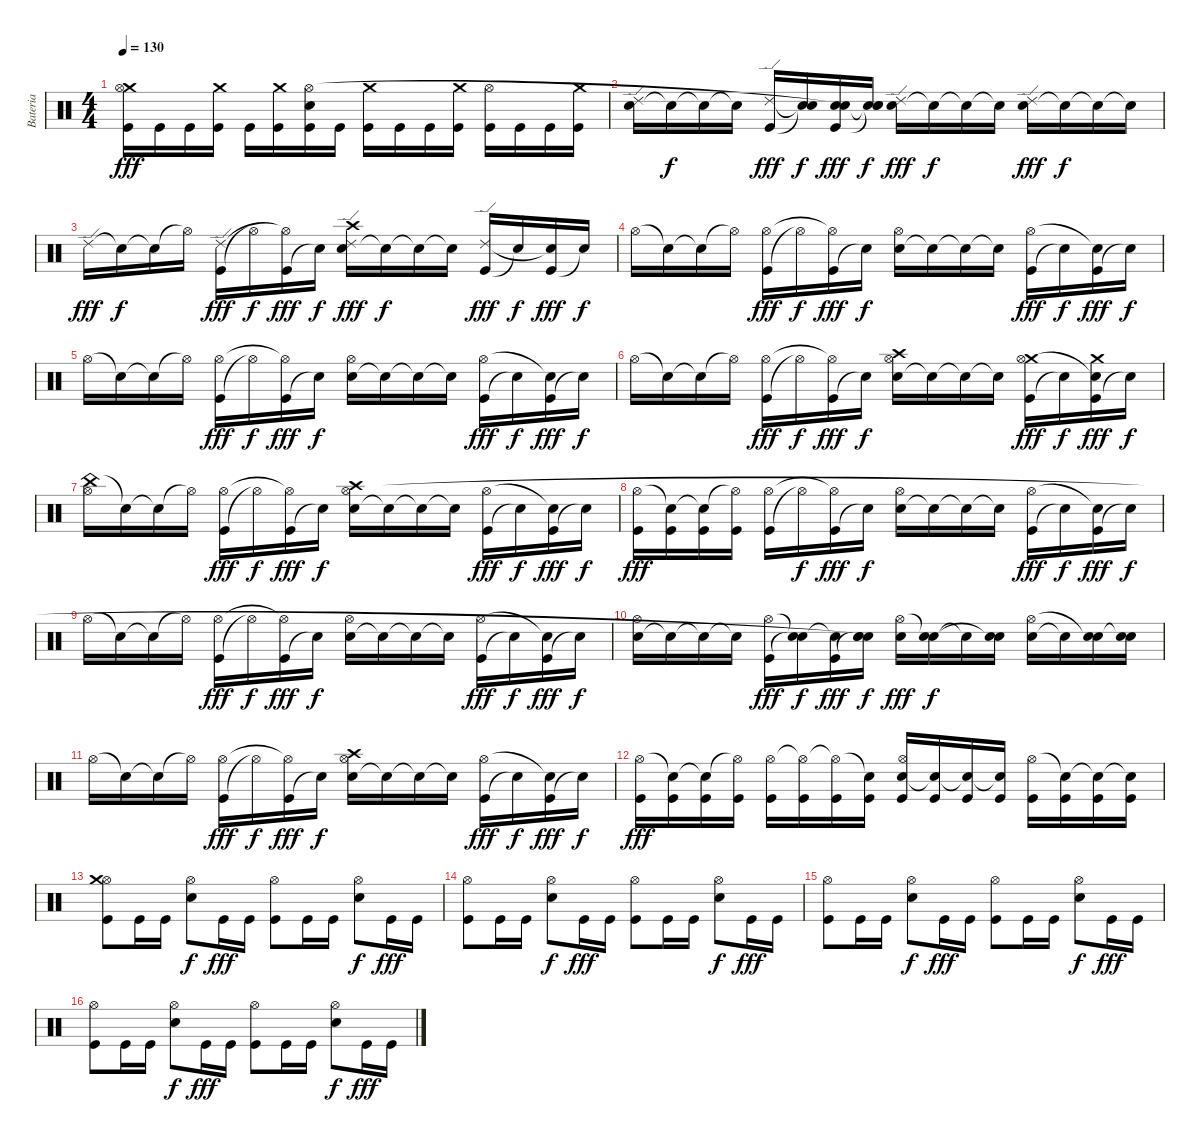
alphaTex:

\track ("Bateria" "Bateria") {instrument percussion}
\staff {score}
\articulation defaults
\ts (4 4)
\tempo 130
\clef neutral
\ks c
("Kick (hit)" "Crash medium (hit)" "Hi-Hat (open)").16{dy fff} "Kick (hit)".16 "Kick (hit)".16 ("Kick (hit)" "Crash medium (hit)").16 "Kick (hit)".16 ("Kick (hit)" "Crash medium (hit)").16 ("Kick (hit)" "Electric Snare (hit)" "Hi-Hat (open)").16 "Kick (hit)".16 ("Kick (hit)" "Crash medium (hit)").16 "Kick (hit)".16 "Kick (hit)".16 ("Kick (hit)" "Crash medium (hit)").16 ("Kick (hit)" "Hi-Hat (open)").16 "Kick (hit)".16 "Kick (hit)".16 ("Kick (hit)" "Crash medium (hit)").16 |
("Electric Snare (hit)" "Ride (edge) 2").16 "Snare (hit)"{t}.16{dy f} "Snare (hit)"{t}.16 "Snare (hit)"{t}.16 ("Kick (hit)" "Ride (edge) 2").16{dy fff} ("Snare (hit)"{t} "Snare (hit)"{t}).16{dy f} ("Kick (hit)" "Electric Snare (hit)" "Snare (hit)"{t}).16{dy fff} ("Snare (hit)"{t} "Electric Snare (hit)" "Snare (hit)"{t}).16{dy f} ("Electric Snare (hit)" "Ride (edge) 2").16{dy fff} "Snare (hit)"{t}.16{dy f} "Snare (hit)"{t}.16 "Snare (hit)"{t}.16 ("Electric Snare (hit)" "Ride (edge) 2").16{dy fff} "Snare (hit)"{t}.16{dy f} "Snare (hit)"{t}.16 "Snare (hit)"{t}.16 |
"Ride (edge) 2".16{dy fff} "Snare (hit)"{t}.16{dy f} "Snare (hit)"{t}.16 "Hi-Hat (open)"{t}.16 ("Kick (hit)" "Ride (edge) 2").16{dy fff} "Hi-Hat (open)"{t}.16{dy f} ("Kick (hit)" "Hi-Hat (open)"{t}).16{dy fff} "Snare (hit)"{t}.16{dy f} ("Electric Snare (hit)" "Crash high (hit)" "Ride (edge) 2").16{dy fff} "Snare (hit)"{t}.16{dy f} "Snare (hit)"{t}.16 "Snare (hit)"{t}.16 ("Kick (hit)" "Ride (edge) 2").16{dy fff} "Snare (hit)"{t}.16{dy f} ("Kick (hit)" "Snare (hit)"{t}).16{dy fff} "Snare (hit)"{t}.16{dy f} |
"Hi-Hat (open)".16 "Snare (hit)"{t}.16 "Snare (hit)"{t}.16 "Hi-Hat (open)"{t}.16 ("Kick (hit)" "Hi-Hat (open)").16{dy fff} "Hi-Hat (open)"{t}.16{dy f} ("Kick (hit)" "Hi-Hat (open)"{t}).16{dy fff} "Snare (hit)"{t}.16{dy f} ("Electric Snare (hit)" "Hi-Hat (open)").16 "Snare (hit)"{t}.16 "Snare (hit)"{t}.16 "Snare (hit)"{t}.16 ("Kick (hit)" "Hi-Hat (open)").16{dy fff} "Snare (hit)"{t}.16{dy f} ("Kick (hit)" "Snare (hit)"{t}).16{dy fff} "Snare (hit)"{t}.16{dy f} |
"Hi-Hat (open)".16 "Snare (hit)"{t}.16 "Snare (hit)"{t}.16 "Hi-Hat (open)"{t}.16 ("Kick (hit)" "Hi-Hat (open)").16{dy fff} "Hi-Hat (open)"{t}.16{dy f} ("Kick (hit)" "Hi-Hat (open)"{t}).16{dy fff} "Snare (hit)"{t}.16{dy f} ("Electric Snare (hit)" "Hi-Hat (open)").16 "Snare (hit)"{t}.16 "Snare (hit)"{t}.16 "Snare (hit)"{t}.16 ("Kick (hit)" "Hi-Hat (open)").16{dy fff} "Snare (hit)"{t}.16{dy f} ("Kick (hit)" "Snare (hit)"{t}).16{dy fff} "Snare (hit)"{t}.16{dy f} |
"Hi-Hat (open)".16 "Snare (hit)"{t}.16 "Snare (hit)"{t}.16 "Hi-Hat (open)"{t}.16 ("Kick (hit)" "Hi-Hat (open)").16{dy fff} "Hi-Hat (open)"{t}.16{dy f} ("Kick (hit)" "Hi-Hat (open)"{t}).16{dy fff} "Snare (hit)"{t}.16{dy f} ("Electric Snare (hit)" "Crash high (hit)" "Hi-Hat (open)").16 "Snare (hit)"{t}.16 "Snare (hit)"{t}.16 "Snare (hit)"{t}.16 ("Kick (hit)" "Crash medium (hit)" "Hi-Hat (open)").16{dy fff} "Snare (hit)"{t}.16{dy f} ("Kick (hit)" "Crash medium (hit)" "Snare (hit)"{t}).16{dy fff} "Snare (hit)"{t}.16{dy f} |
("China (hit)" "Hi-Hat (open)").16 "Snare (hit)"{t}.16 "Snare (hit)"{t}.16 "Hi-Hat (open)"{t}.16 ("Kick (hit)" "Hi-Hat (open)").16{dy fff} "Hi-Hat (open)"{t}.16{dy f} ("Kick (hit)" "Hi-Hat (open)"{t}).16{dy fff} "Snare (hit)"{t}.16{dy f} ("Electric Snare (hit)" "Crash high (hit)" "Hi-Hat (open)").16 "Snare (hit)"{t}.16 "Snare (hit)"{t}.16 "Snare (hit)"{t}.16 ("Kick (hit)" "Hi-Hat (open)").16{dy fff} "Snare (hit)"{t}.16{dy f} ("Kick (hit)" "Snare (hit)"{t}).16{dy fff} "Snare (hit)"{t}.16{dy f} |
("Kick (hit)" "Hi-Hat (open)").16{dy fff} ("Kick (hit)" "Snare (hit)"{t}).16 ("Kick (hit)" "Snare (hit)"{t}).16 ("Kick (hit)" "Hi-Hat (open)"{t}).16 ("Kick (hit)" "Hi-Hat (open)").16 "Hi-Hat (open)"{t}.16{dy f} ("Kick (hit)" "Hi-Hat (open)"{t}).16{dy fff} "Snare (hit)"{t}.16{dy f} ("Electric Snare (hit)" "Hi-Hat (open)").16 "Snare (hit)"{t}.16 "Snare (hit)"{t}.16 "Snare (hit)"{t}.16 ("Kick (hit)" "Hi-Hat (open)").16{dy fff} "Snare (hit)"{t}.16{dy f} ("Kick (hit)" "Snare (hit)"{t}).16{dy fff} "Snare (hit)"{t}.16{dy f} |
"Hi-Hat (open)".16 "Snare (hit)"{t}.16 "Snare (hit)"{t}.16 "Hi-Hat (open)"{t}.16 ("Kick (hit)" "Hi-Hat (open)").16{dy fff} "Hi-Hat (open)"{t}.16{dy f} ("Kick (hit)" "Hi-Hat (open)"{t}).16{dy fff} "Snare (hit)"{t}.16{dy f} ("Electric Snare (hit)" "Hi-Hat (open)").16 "Snare (hit)"{t}.16 "Snare (hit)"{t}.16 "Snare (hit)"{t}.16 ("Kick (hit)" "Hi-Hat (open)").16{dy fff} "Snare (hit)"{t}.16{dy f} ("Kick (hit)" "Snare (hit)"{t}).16{dy fff} "Snare (hit)"{t}.16{dy f} |
("Electric Snare (hit)" "Hi-Hat (open)").16 "Snare (hit)"{t}.16 "Snare (hit)"{t}.16 "Snare (hit)"{t}.16 ("Kick (hit)" "Hi-Hat (open)").16{dy fff} ("Snare (hit)"{t} "Snare (hit)"{t}).16{dy f} ("Kick (hit)" "Snare (hit)"{t}).16{dy fff} ("Snare (hit)"{t} "Electric Snare (hit)" "Snare (hit)"{t}).16{dy f} ("Electric Snare (hit)" "Hi-Hat (open)").16{dy fff} ("Electric Snare (hit)" "Snare (hit)"{t}).16{dy f} "Snare (hit)"{t}.16 ("Electric Snare (hit)" "Snare (hit)"{t}).16 ("Electric Snare (hit)" "Hi-Hat (open)").16 "Snare (hit)"{t}.16 ("Electric Snare (hit)" "Snare (hit)"{t}).16 ("Electric Snare (hit)" "Snare (hit)"{t}).16 |
"Hi-Hat (open)".16 "Snare (hit)"{t}.16 "Snare (hit)"{t}.16 "Hi-Hat (open)"{t}.16 ("Kick (hit)" "Hi-Hat (open)").16{dy fff} "Hi-Hat (open)"{t}.16{dy f} ("Kick (hit)" "Hi-Hat (open)"{t}).16{dy fff} "Snare (hit)"{t}.16{dy f} ("Electric Snare (hit)" "Crash high (hit)" "Hi-Hat (open)").16 "Snare (hit)"{t}.16 "Snare (hit)"{t}.16 "Snare (hit)"{t}.16 ("Kick (hit)" "Hi-Hat (open)").16{dy fff} "Snare (hit)"{t}.16{dy f} ("Kick (hit)" "Snare (hit)"{t}).16{dy fff} "Snare (hit)"{t}.16{dy f} |
("Kick (hit)" "Hi-Hat (open)").16{dy fff} ("Kick (hit)" "Snare (hit)"{t}).16 ("Kick (hit)" "Snare (hit)"{t}).16 ("Kick (hit)" "Hi-Hat (open)"{t}).16 ("Kick (hit)" "Hi-Hat (open)").16 ("Kick (hit)" "Hi-Hat (open)"{t}).16 ("Kick (hit)" "Hi-Hat (open)"{t}).16 ("Kick (hit)" "Snare (hit)"{t}).16 ("Kick (hit)" "Electric Snare (hit)" "Hi-Hat (open)").16 ("Kick (hit)" "Snare (hit)"{t}).16 ("Kick (hit)" "Snare (hit)"{t}).16 ("Kick (hit)" "Snare (hit)"{t}).16 ("Kick (hit)" "Hi-Hat (open)").16 ("Kick (hit)" "Snare (hit)"{t}).16 ("Kick (hit)" "Snare (hit)"{t}).16 ("Kick (hit)" "Snare (hit)"{t}).16 |
("Kick (hit)" "Hi-Hat (open)" "Crash medium (hit)").8 "Kick (hit)".16 "Kick (hit)".16 ("Electric Snare (hit)" "Hi-Hat (open)").8{dy f} "Kick (hit)".16{dy fff} "Kick (hit)".16 ("Kick (hit)" "Hi-Hat (open)").8 "Kick (hit)".16 "Kick (hit)".16 ("Electric Snare (hit)" "Hi-Hat (open)").8{dy f} "Kick (hit)".16{dy fff} "Kick (hit)".16 |
("Kick (hit)" "Hi-Hat (open)").8 "Kick (hit)".16 "Kick (hit)".16 ("Electric Snare (hit)" "Hi-Hat (open)").8{dy f} "Kick (hit)".16{dy fff} "Kick (hit)".16 ("Kick (hit)" "Hi-Hat (open)").8 "Kick (hit)".16 "Kick (hit)".16 ("Electric Snare (hit)" "Hi-Hat (open)").8{dy f} "Kick (hit)".16{dy fff} "Kick (hit)".16 |
("Kick (hit)" "Hi-Hat (open)").8 "Kick (hit)".16 "Kick (hit)".16 ("Electric Snare (hit)" "Hi-Hat (open)").8{dy f} "Kick (hit)".16{dy fff} "Kick (hit)".16 ("Kick (hit)" "Hi-Hat (open)").8 "Kick (hit)".16 "Kick (hit)".16 ("Electric Snare (hit)" "Hi-Hat (open)").8{dy f} "Kick (hit)".16{dy fff} "Kick (hit)".16 |
("Kick (hit)" "Hi-Hat (open)").8 "Kick (hit)".16 "Kick (hit)".16 ("Electric Snare (hit)" "Hi-Hat (open)").8{dy f} "Kick (hit)".16{dy fff} "Kick (hit)".16 ("Kick (hit)" "Hi-Hat (open)").8 "Kick (hit)".16 "Kick (hit)".16 ("Electric Snare (hit)" "Hi-Hat (open)").8{dy f} "Kick (hit)".16{dy fff} "Kick (hit)".16
